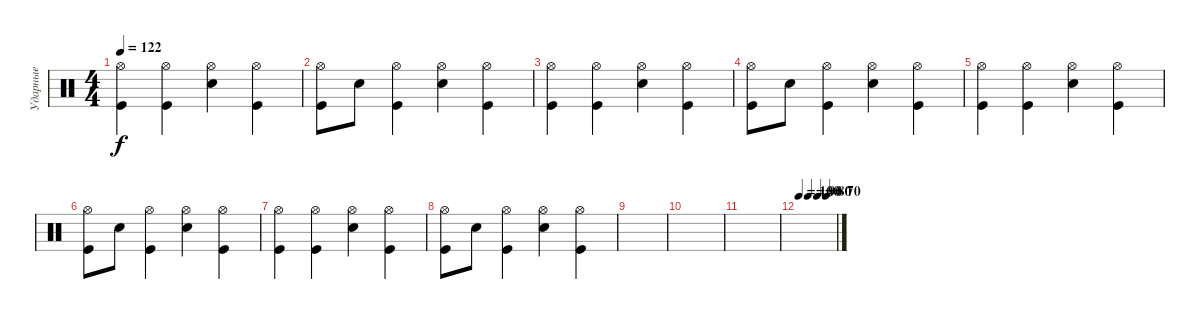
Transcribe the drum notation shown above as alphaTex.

\track ("Ударные" "Ударные") {instrument percussion}
\staff {score}
\articulation defaults
\ts (4 4)
\tempo 122
\clef neutral
\ks c
("Kick (hit)" "Hi-Hat (open)").4{dy f} ("Kick (hit)" "Hi-Hat (open)").4 ("Snare (hit) 2" "Hi-Hat (open)").4 ("Kick (hit)" "Hi-Hat (open)").4 |
("Kick (hit)" "Hi-Hat (open)").8 "Snare (hit) 2".8 ("Kick (hit)" "Hi-Hat (open)").4 ("Snare (hit) 2" "Hi-Hat (open)").4 ("Kick (hit)" "Hi-Hat (open)").4 |
("Kick (hit)" "Hi-Hat (open)").4 ("Kick (hit)" "Hi-Hat (open)").4 ("Snare (hit) 2" "Hi-Hat (open)").4 ("Kick (hit)" "Hi-Hat (open)").4 |
("Kick (hit)" "Hi-Hat (open)").8 "Snare (hit) 2".8 ("Kick (hit)" "Hi-Hat (open)").4 ("Snare (hit) 2" "Hi-Hat (open)").4 ("Kick (hit)" "Hi-Hat (open)").4 |
("Kick (hit)" "Hi-Hat (open)").4 ("Kick (hit)" "Hi-Hat (open)").4 ("Snare (hit) 2" "Hi-Hat (open)").4 ("Kick (hit)" "Hi-Hat (open)").4 |
("Kick (hit)" "Hi-Hat (open)").8 "Snare (hit) 2".8 ("Kick (hit)" "Hi-Hat (open)").4 ("Snare (hit) 2" "Hi-Hat (open)").4 ("Kick (hit)" "Hi-Hat (open)").4 |
("Kick (hit)" "Hi-Hat (open)").4 ("Kick (hit)" "Hi-Hat (open)").4 ("Snare (hit) 2" "Hi-Hat (open)").4 ("Kick (hit)" "Hi-Hat (open)").4 |
("Kick (hit)" "Hi-Hat (open)").8 "Snare (hit) 2".8 ("Kick (hit)" "Hi-Hat (open)").4 ("Snare (hit) 2" "Hi-Hat (open)").4 ("Kick (hit)" "Hi-Hat (open)").4 |
|
|
|
\tempo 100
\tempo (90 0.25)
\tempo (80 0.5)
\tempo (70 0.75)
